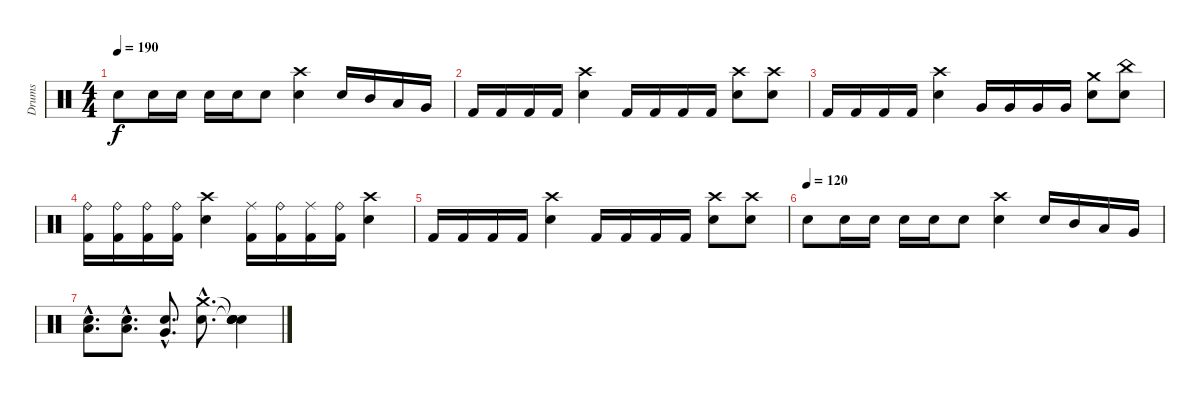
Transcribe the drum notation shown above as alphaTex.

\track ("Drums" "Drums") {instrument percussion}
\staff {score}
\articulation defaults
\ts (4 4)
\tempo 190
\clef neutral
\ks c "Electric Snare (hit)".8{dy f} "Electric Snare (hit)".16 "Electric Snare (hit)".16 "Electric Snare (hit)".16 "Electric Snare (hit)".16 "Electric Snare (hit)".8
("Electric Snare (hit)" "Crash high (hit)").4 "Electric Snare (hit)".16 "Mid Tom (hit)".16 "Low Tom (hit)".16 "Very Low Tom (hit)".16 |
"Kick (hit) 2".16 "Kick (hit) 2".16 "Kick (hit) 2".16 "Kick (hit) 2".16 ("Electric Snare (hit)" "Crash high (hit)").4 "Kick (hit) 2".16 "Kick (hit) 2".16 "Kick (hit) 2".16 "Kick (hit) 2".16 ("Electric Snare (hit)" "Crash high (hit)").8 ("Electric Snare (hit)" "Crash high (hit)").8 |
"Kick (hit) 2".16 "Kick (hit) 2".16 "Kick (hit) 2".16 "Kick (hit) 2".16 ("Electric Snare (hit)" "Crash high (hit)").4 "Very Low Tom (hit)".16 "Very Low Tom (hit)".16 "Very Low Tom (hit)".16 "Very Low Tom (hit)".16 ("Electric Snare (hit)" "Crash medium (hit)").8 ("Electric Snare (hit)" "China (hit)").8 |
("Kick (hit) 2" "Ride (bell)").16 ("Kick (hit) 2" "Ride (bell)").16 ("Kick (hit) 2" "Ride (bell)").16 ("Kick (hit) 2" "Ride (bell)").16 ("Electric Snare (hit)" "Crash high (hit)").4 ("Kick (hit) 2" "Ride (middle)").16 ("Kick (hit) 2" "Ride (bell)").16 ("Kick (hit) 2" "Ride (middle)").16 ("Kick (hit) 2" "Ride (bell)").16 ("Electric Snare (hit)" "Crash high (hit)").4 |
"Kick (hit) 2".16 "Kick (hit) 2".16 "Kick (hit) 2".16 "Kick (hit) 2".16 ("Electric Snare (hit)" "Crash high (hit)").4 "Kick (hit) 2".16 "Kick (hit) 2".16 "Kick (hit) 2".16 "Kick (hit) 2".16 ("Electric Snare (hit)" "Crash high (hit)").8 ("Electric Snare (hit)" "Crash high (hit)").8 |
\tempo (120)
"Electric Snare (hit)".8 "Electric Snare (hit)".16 "Electric Snare (hit)".16 "Electric Snare (hit)".16 "Electric Snare (hit)".16 "Electric Snare (hit)".8 ("Electric Snare (hit)" "Crash high (hit)").4 "Electric Snare (hit)".16 "Mid Tom (hit)".16 "Low Tom (hit)".16 "Very Low Tom (hit)".16 |
("Electric Snare (hit)"{hac} "Low Tom (hit)"{hac}).8{d} ("Electric Snare (hit)"{hac} "Low Tom (hit)"{hac}).8{d} ("Electric Snare (hit)"{hac} "Very Low Tom (hit)"{hac}).8{d} ("Crash medium (hit)"{hac} "Electric Snare (hit)"{hac}).8{d} ("Snare (hit)"{t} "Snare (hit)"{t} "Snare (hit)" "Snare (hit)").4
